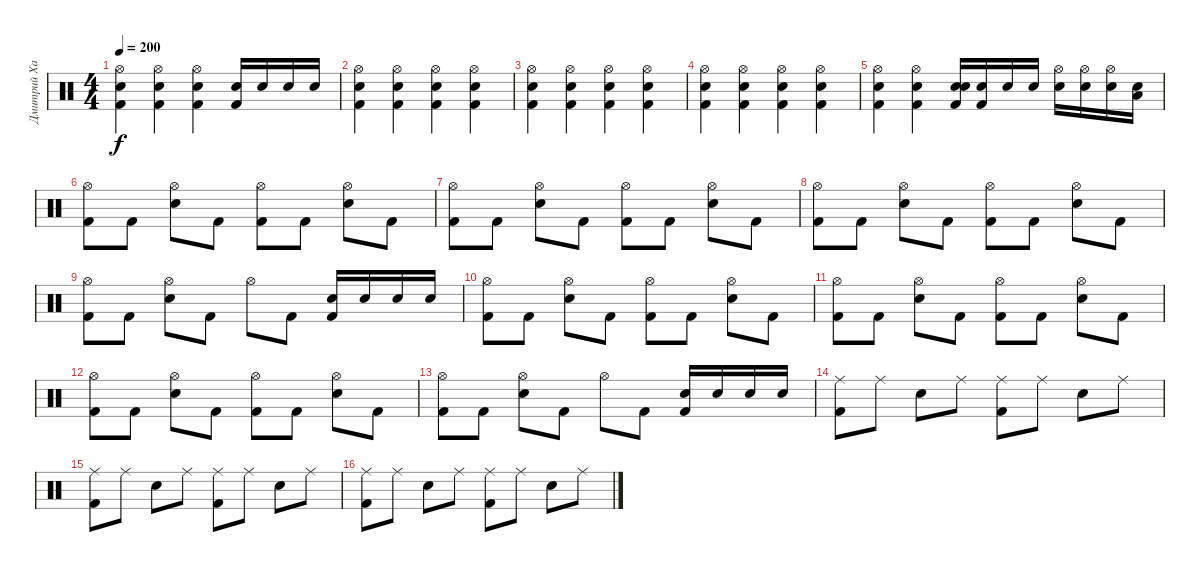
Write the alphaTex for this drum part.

\track ("Дмитрий Хакимов" "Дмитрий Ха") {instrument percussion}
\staff {score}
\articulation defaults
\ts (4 4)
\tempo 200
\clef neutral
\ks c
("Hi-Hat (open)" "Electric Snare (hit)" "Kick (hit) 2").4{dy f} ("Hi-Hat (open)" "Electric Snare (hit)" "Kick (hit) 2").4 ("Hi-Hat (open)" "Electric Snare (hit)" "Kick (hit) 2").4 ("Electric Snare (hit)" "Kick (hit) 2").16 "Electric Snare (hit)".16 "Electric Snare (hit)".16 "Electric Snare (hit)".16 |
("Hi-Hat (open)" "Electric Snare (hit)" "Kick (hit) 2").4 ("Hi-Hat (open)" "Electric Snare (hit)" "Kick (hit) 2").4 ("Hi-Hat (open)" "Electric Snare (hit)" "Kick (hit) 2").4 ("Hi-Hat (open)" "Electric Snare (hit)" "Kick (hit) 2").4 |
("Hi-Hat (open)" "Electric Snare (hit)" "Kick (hit) 2").4 ("Hi-Hat (open)" "Electric Snare (hit)" "Kick (hit) 2").4 ("Hi-Hat (open)" "Electric Snare (hit)" "Kick (hit) 2").4 ("Hi-Hat (open)" "Electric Snare (hit)" "Kick (hit) 2").4 |
("Hi-Hat (open)" "Electric Snare (hit)" "Kick (hit) 2").4 ("Hi-Hat (open)" "Electric Snare (hit)" "Kick (hit) 2").4 ("Hi-Hat (open)" "Electric Snare (hit)" "Kick (hit) 2").4 ("Hi-Hat (open)" "Electric Snare (hit)" "Kick (hit) 2").4 |
("Hi-Hat (open)" "Electric Snare (hit)" "Kick (hit) 2").4 ("Hi-Hat (open)" "Electric Snare (hit)" "Kick (hit) 2").4 ("Electric Snare (hit)" "Electric Snare (hit)" "Kick (hit) 2").16 ("Electric Snare (hit)" "Kick (hit) 2").16 "Electric Snare (hit)".16 "Electric Snare (hit)".16 ("Electric Snare (hit)" "Hi-Hat (open)").16 ("Electric Snare (hit)" "Hi-Hat (open)").16 ("Electric Snare (hit)" "Hi-Hat (open)").16 ("Electric Snare (hit)" "Low Tom (hit)").16 |
("Kick (hit) 2" "Hi-Hat (open)").8 "Kick (hit) 2".8 ("Electric Snare (hit)" "Hi-Hat (open)").8 "Kick (hit) 2".8 ("Kick (hit) 2" "Hi-Hat (open)").8 "Kick (hit) 2".8 ("Electric Snare (hit)" "Hi-Hat (open)").8 "Kick (hit) 2".8 |
("Kick (hit) 2" "Hi-Hat (open)").8 "Kick (hit) 2".8 ("Electric Snare (hit)" "Hi-Hat (open)").8 "Kick (hit) 2".8 ("Kick (hit) 2" "Hi-Hat (open)").8 "Kick (hit) 2".8 ("Electric Snare (hit)" "Hi-Hat (open)").8 "Kick (hit) 2".8 |
("Kick (hit) 2" "Hi-Hat (open)").8 "Kick (hit) 2".8 ("Electric Snare (hit)" "Hi-Hat (open)").8 "Kick (hit) 2".8 ("Kick (hit) 2" "Hi-Hat (open)").8 "Kick (hit) 2".8 ("Electric Snare (hit)" "Hi-Hat (open)").8 "Kick (hit) 2".8 |
("Kick (hit) 2" "Hi-Hat (open)").8 "Kick (hit) 2".8 ("Electric Snare (hit)" "Hi-Hat (open)").8 "Kick (hit) 2".8 "Hi-Hat (open)".8 "Kick (hit) 2".8 ("Electric Snare (hit)" "Kick (hit) 2").16 "Electric Snare (hit)".16 "Electric Snare (hit)".16 "Electric Snare (hit)".16 |
("Kick (hit) 2" "Hi-Hat (open)").8 "Kick (hit) 2".8 ("Electric Snare (hit)" "Hi-Hat (open)").8 "Kick (hit) 2".8 ("Kick (hit) 2" "Hi-Hat (open)").8 "Kick (hit) 2".8 ("Electric Snare (hit)" "Hi-Hat (open)").8 "Kick (hit) 2".8 |
("Kick (hit) 2" "Hi-Hat (open)").8 "Kick (hit) 2".8 ("Electric Snare (hit)" "Hi-Hat (open)").8 "Kick (hit) 2".8 ("Kick (hit) 2" "Hi-Hat (open)").8 "Kick (hit) 2".8 ("Electric Snare (hit)" "Hi-Hat (open)").8 "Kick (hit) 2".8 |
("Kick (hit) 2" "Hi-Hat (open)").8 "Kick (hit) 2".8 ("Electric Snare (hit)" "Hi-Hat (open)").8 "Kick (hit) 2".8 ("Kick (hit) 2" "Hi-Hat (open)").8 "Kick (hit) 2".8 ("Electric Snare (hit)" "Hi-Hat (open)").8 "Kick (hit) 2".8 |
("Kick (hit) 2" "Hi-Hat (open)").8 "Kick (hit) 2".8 ("Electric Snare (hit)" "Hi-Hat (open)").8 "Kick (hit) 2".8 "Hi-Hat (open)".8 "Kick (hit) 2".8 ("Electric Snare (hit)" "Kick (hit) 2").16 "Electric Snare (hit)".16 "Electric Snare (hit)".16 "Electric Snare (hit)".16 |
("Ride (middle)" "Kick (hit) 2").8 "Ride (middle)".8 "Electric Snare (hit)".8 "Ride (middle)".8 ("Ride (middle)" "Kick (hit) 2").8 "Ride (middle)".8 "Electric Snare (hit)".8 "Ride (middle)".8 |
("Ride (middle)" "Kick (hit) 2").8 "Ride (middle)".8 "Electric Snare (hit)".8 "Ride (middle)".8 ("Ride (middle)" "Kick (hit) 2").8 "Ride (middle)".8 "Electric Snare (hit)".8 "Ride (middle)".8 |
("Ride (middle)" "Kick (hit) 2").8 "Ride (middle)".8 "Electric Snare (hit)".8 "Ride (middle)".8 ("Ride (middle)" "Kick (hit) 2").8 "Ride (middle)".8 "Electric Snare (hit)".8 "Ride (middle)".8
